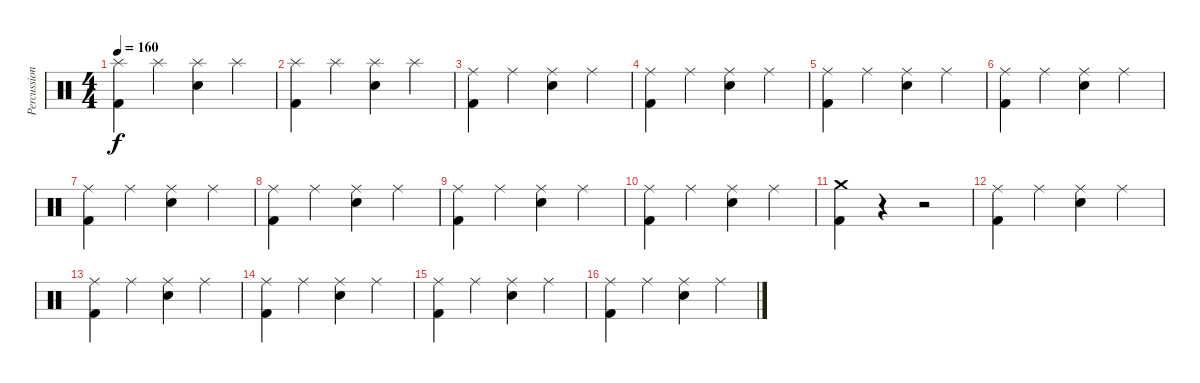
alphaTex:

\track ("Percussion" "Percussion") {instrument percussion}
\staff {score}
\articulation defaults
\ts (4 4)
\tempo 160
\clef neutral
\ks c
("Splash (hit)" "Kick (hit) 2").4{dy f} "Splash (hit)".4 ("Splash (hit)" "Electric Snare (hit)").4 "Splash (hit)".4 |
("Splash (hit)" "Kick (hit) 2").4 "Splash (hit)".4 ("Splash (hit)" "Electric Snare (hit)").4 "Splash (hit)".4 |
("Ride (middle)" "Kick (hit) 2").4 "Ride (middle)".4 ("Ride (middle)" "Electric Snare (hit)").4 "Ride (middle)".4 |
("Ride (middle)" "Kick (hit) 2").4 "Ride (middle)".4 ("Ride (middle)" "Electric Snare (hit)").4 "Ride (middle)".4 |
("Ride (middle)" "Kick (hit) 2").4 "Ride (middle)".4 ("Ride (middle)" "Electric Snare (hit)").4 "Ride (middle)".4 |
("Ride (middle)" "Kick (hit) 2").4 "Ride (middle)".4 ("Ride (middle)" "Electric Snare (hit)").4 "Ride (middle)".4 |
("Ride (middle)" "Kick (hit) 2").4 "Ride (middle)".4 ("Ride (middle)" "Electric Snare (hit)").4 "Ride (middle)".4 |
("Ride (middle)" "Kick (hit) 2").4 "Ride (middle)".4 ("Ride (middle)" "Electric Snare (hit)").4 "Ride (middle)".4 |
("Ride (middle)" "Kick (hit) 2").4 "Ride (middle)".4 ("Ride (middle)" "Electric Snare (hit)").4 "Ride (middle)".4 |
("Ride (middle)" "Kick (hit) 2").4 "Ride (middle)".4 ("Ride (middle)" "Electric Snare (hit)").4 "Ride (middle)".4 |
("Crash medium (hit)" "Kick (hit) 2").4 r.4 r.2 |
("Ride (middle)" "Kick (hit) 2").4 "Ride (middle)".4 ("Ride (middle)" "Electric Snare (hit)").4 "Ride (middle)".4 |
("Ride (middle)" "Kick (hit) 2").4 "Ride (middle)".4 ("Ride (middle)" "Electric Snare (hit)").4 "Ride (middle)".4 |
("Ride (middle)" "Kick (hit) 2").4 "Ride (middle)".4 ("Ride (middle)" "Electric Snare (hit)").4 "Ride (middle)".4 |
("Ride (middle)" "Kick (hit) 2").4 "Ride (middle)".4 ("Ride (middle)" "Electric Snare (hit)").4 "Ride (middle)".4 |
("Ride (middle)" "Kick (hit) 2").4 "Ride (middle)".4 ("Ride (middle)" "Electric Snare (hit)").4 "Ride (middle)".4
